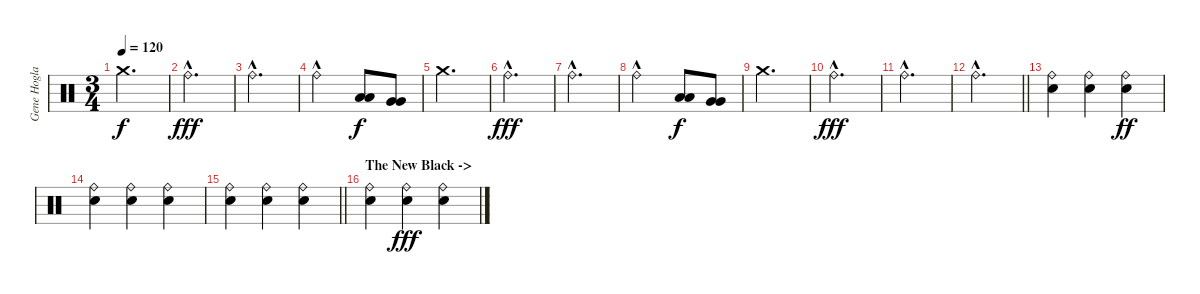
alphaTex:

\track ("Gene Hoglan" "Gene Hogla") {instrument percussion}
\staff {score}
\articulation defaults
\ts (3 4)
\section ("" "")
\tempo 120
\clef neutral
\ks c "Crash medium (hit)".2{d dy f}
|
"Ride (bell)"{hac}.2{d dy fff} |
"Ride (bell)"{hac}.2{d} |
"Ride (bell)"{hac}.2 ("Low Tom (hit)" "Low Tom (hit)").8{dy f} ("Very Low Tom (hit)" "Very Low Tom (hit)").8 |
"Crash medium (hit)".2{d} |
"Ride (bell)"{hac}.2{d dy fff} |
"Ride (bell)"{hac}.2{d} |
"Ride (bell)"{hac}.2 ("Low Tom (hit)" "Low Tom (hit)").8{dy f} ("Very Low Tom (hit)" "Very Low Tom (hit)").8 |
"Crash medium (hit)".2{d} |
"Ride (bell)"{hac}.2{d dy fff} |
"Ride (bell)"{hac}.2{d} |
\barLineRight lightlight "Ride (bell)"{hac}.2{d}
|
\section ("" "")
("Ride (bell)" "Snare (hit) 2").4 ("Ride (bell)" "Snare (hit) 2").4 ("Ride (bell)" "Snare (hit) 2").4{dy ff} |
("Ride (bell)" "Snare (hit) 2").4 ("Ride (bell)" "Snare (hit) 2").4 ("Ride (bell)" "Snare (hit) 2").4 |
\barLineRight lightlight
("Ride (bell)" "Snare (hit) 2").4 ("Ride (bell)" "Snare (hit) 2").4 ("Ride (bell)" "Snare (hit) 2").4 |
\section ("" "The New Black ->")
("Ride (bell)" "Snare (hit) 2").4 ("Ride (bell)" "Snare (hit) 2").4{dy fff} ("Ride (bell)" "Snare (hit) 2").4
